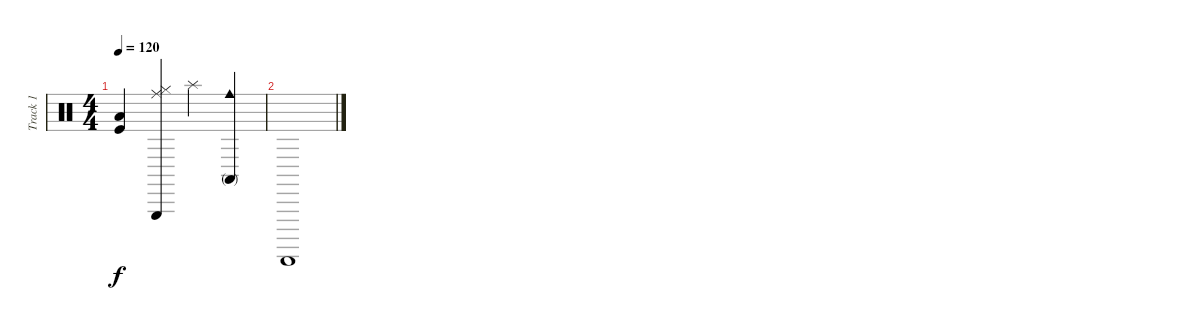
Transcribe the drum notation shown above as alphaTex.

\track ("Track 1" "Track 1") {instrument percussion}
\staff {score}
\articulation defaults
\ts (4 4)
\tempo 120
\clef neutral
\ks c
("Low Tom (hit)" "Kick (hit)").4{dy f} ("Triangle (hit)" "Hi-Hat (closed)" "Ride (middle)").4 "Splash (hit)".4 ("Cowbell medium (hit)" "Conga high (mute)").4 |
"Guiro (scrap-return)".1
